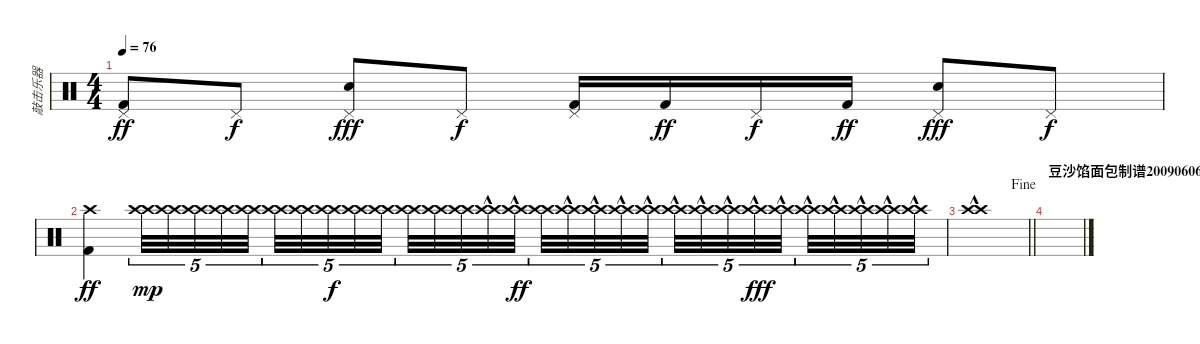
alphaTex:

\track ("敲击乐器" "敲击乐器") {instrument percussion}
\staff {score}
\articulation defaults
\ts (4 4)
\tempo 76
\clef neutral
\ks c
("Pedal Hi-Hat (hit)" "Kick (hit) 2").8{dy ff} "Pedal Hi-Hat (hit)".8{dy f} ("Pedal Hi-Hat (hit)" "Electric Snare (hit)").8{dy fff} "Pedal Hi-Hat (hit)".8{dy f} ("Pedal Hi-Hat (hit)" "Kick (hit) 2").16 "Kick (hit) 2".16{dy ff} "Pedal Hi-Hat (hit)".16{dy f} "Kick (hit) 2".16{dy ff} ("Pedal Hi-Hat (hit)" "Electric Snare (hit)").8{dy fff} "Pedal Hi-Hat (hit)".8{dy f} |
("Crash high (hit)" "Kick (hit) 2").4{dy ff} ("Crash high (hit)" "Crash high (hit)").32{tu (5 4) dy mp} ("Crash high (hit)" "Crash high (hit)").32{tu (5 4)} ("Crash high (hit)" "Crash high (hit)").32{tu (5 4)} ("Crash high (hit)" "Crash high (hit)").32{tu (5 4)} ("Crash high (hit)" "Crash high (hit)").32{tu (5 4) beam splitsecondary} ("Crash high (hit)" "Crash high (hit)").32{tu (5 4)} ("Crash high (hit)" "Crash high (hit)").32{tu (5 4)} ("Crash high (hit)" "Crash high (hit)").32{tu (5 4) dy f} ("Crash high (hit)" "Crash high (hit)").32{tu (5 4)} ("Crash high (hit)" "Crash high (hit)").32{tu (5 4)} ("Crash high (hit)" "Crash high (hit)").32{tu (5 4)} ("Crash high (hit)" "Crash high (hit)").32{tu (5 4)} ("Crash high (hit)" "Crash high (hit)").32{tu (5 4)} ("Crash high (hit)"{hac} "Crash high (hit)"{hac}).32{tu (5 4)} ("Crash high (hit)"{hac} "Crash high (hit)"{hac}).32{tu (5 4) dy ff beam splitsecondary} ("Crash high (hit)" "Crash high (hit)").32{tu (5 4)} ("Crash high (hit)"{hac} "Crash high (hit)").32{tu (5 4)} ("Crash high (hit)"{hac} "Crash high (hit)").32{tu (5 4)} ("Crash high (hit)"{hac} "Crash high (hit)").32{tu (5 4)} ("Crash high (hit)"{hac} "Crash high (hit)").32{tu (5 4)} ("Crash high (hit)"{hac} "Crash high (hit)").32{tu (5 4)} ("Crash high (hit)"{hac} "Crash high (hit)").32{tu (5 4)} ("Crash high (hit)"{hac} "Crash high (hit)").32{tu (5 4)} ("Crash high (hit)"{hac} "Crash high (hit)").32{tu (5 4) dy fff} ("Crash high (hit)"{hac} "Crash high (hit)").32{tu (5 4) beam splitsecondary} ("Crash high (hit)"{hac} "Crash high (hit)").32{tu (5 4)} ("Crash high (hit)"{hac} "Crash high (hit)").32{tu (5 4)} ("Crash high (hit)"{hac} "Crash high (hit)").32{tu (5 4)} ("Crash high (hit)"{hac} "Crash high (hit)").32{tu (5 4)} ("Crash high (hit)"{hac} "Crash high (hit)").32{tu (5 4)} |
\jump fine
\barLineRight lightlight
("Crash high (hit)"{hac} "Crash high (hit)"{hac}).1 |
\section ("" "豆沙馅面包制谱20090606")
